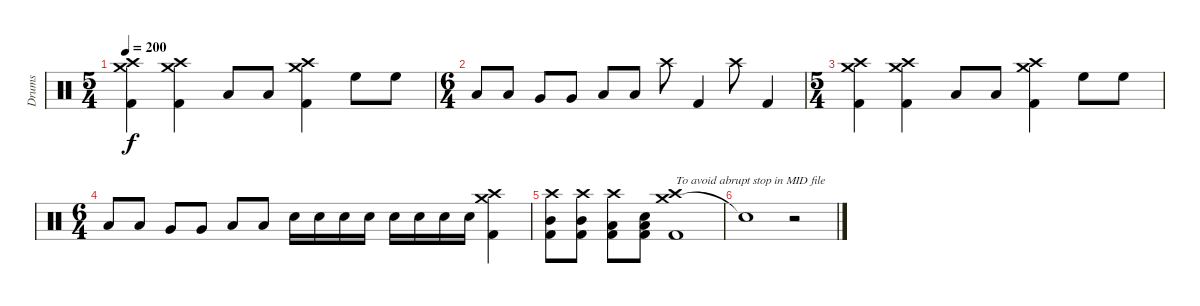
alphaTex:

\track ("Drums" "Drums") {instrument percussion}
\staff {score}
\articulation defaults
\ts (5 4)
\tempo 200
\clef neutral
\ks c
("Crash high (hit)" "Crash medium (hit)" "Kick (hit) 2").4{dy f} ("Crash high (hit)" "Crash medium (hit)" "Kick (hit) 2").4 "Low Floor Tom (hit)".8 "Low Floor Tom (hit)".8 ("Crash high (hit)" "Crash medium (hit)" "Kick (hit) 2").4 "High Floor Tom (hit)".8 "High Floor Tom (hit)".8 |
\ts (6 4)
"Low Tom (hit)".8 "Low Tom (hit)".8 "Very Low Tom (hit)".8 "Very Low Tom (hit)".8 "Low Floor Tom (hit)".8 "Low Floor Tom (hit)".8 "Crash high (hit)".8 "Kick (hit) 2".4 "Crash high (hit)".8 "Kick (hit) 2".4 |
\ts (5 4)
("Crash high (hit)" "Crash medium (hit)" "Kick (hit) 2").4 ("Crash high (hit)" "Crash medium (hit)" "Kick (hit) 2").4 "Low Floor Tom (hit)".8 "Low Floor Tom (hit)".8 ("Crash high (hit)" "Crash medium (hit)" "Kick (hit) 2").4 "High Floor Tom (hit)".8 "High Floor Tom (hit)".8 |
\ts (6 4)
"Low Tom (hit)".8 "Low Tom (hit)".8 "Very Low Tom (hit)".8 "Very Low Tom (hit)".8 "Low Floor Tom (hit)".8 "Low Floor Tom (hit)".8 "Snare (hit) 2".16 "Snare (hit) 2".16 "Snare (hit) 2".16 "Snare (hit) 2".16 "Snare (hit) 2".16 "Snare (hit) 2".16 "Snare (hit) 2".16 "Snare (hit) 2".16 ("Crash medium (hit)" "Crash high (hit)" "Kick (hit) 2").4 |
("Crash high (hit)" "Kick (hit) 2" "Mid Tom (hit)").8 ("Crash high (hit)" "Kick (hit) 2" "Mid Tom (hit)").8 ("Crash high (hit)" "Kick (hit) 2" "Low Tom (hit)").8 ("Snare (hit) 2" "Kick (hit) 2" "Low Tom (hit)").8 ("Crash medium (hit)" "Crash high (hit)" "Kick (hit) 2").1{txt "To avoid abrupt stop in MID file"} |
"Snare (hit)"{t}.1 r.2
